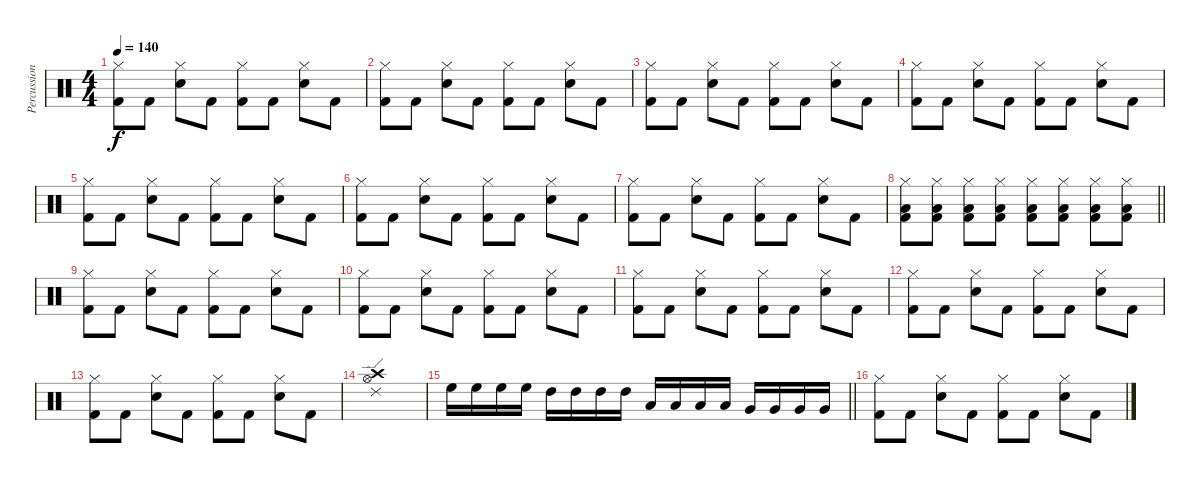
\track ("Percussion" "Percussion") {instrument percussion}
\staff {score}
\articulation defaults
\ts (4 4)
\tempo 140
\clef neutral
\ks c
("Hi-Hat (closed)" "Kick (hit) 2").8{dy f} "Kick (hit) 2".8 ("Electric Snare (hit)" "Hi-Hat (closed)").8 "Kick (hit) 2".8 ("Hi-Hat (closed)" "Kick (hit) 2").8 "Kick (hit) 2".8 ("Electric Snare (hit)" "Hi-Hat (closed)").8 "Kick (hit) 2".8 |
("Hi-Hat (closed)" "Kick (hit) 2").8 "Kick (hit) 2".8 ("Electric Snare (hit)" "Hi-Hat (closed)").8 "Kick (hit) 2".8 ("Hi-Hat (closed)" "Kick (hit) 2").8 "Kick (hit) 2".8 ("Electric Snare (hit)" "Hi-Hat (closed)").8 "Kick (hit) 2".8 |
("Hi-Hat (closed)" "Kick (hit) 2").8 "Kick (hit) 2".8 ("Electric Snare (hit)" "Hi-Hat (closed)").8 "Kick (hit) 2".8 ("Hi-Hat (closed)" "Kick (hit) 2").8 "Kick (hit) 2".8 ("Electric Snare (hit)" "Hi-Hat (closed)").8 "Kick (hit) 2".8 |
("Hi-Hat (closed)" "Kick (hit) 2").8 "Kick (hit) 2".8 ("Electric Snare (hit)" "Hi-Hat (closed)").8 "Kick (hit) 2".8 ("Hi-Hat (closed)" "Kick (hit) 2").8 "Kick (hit) 2".8 ("Electric Snare (hit)" "Hi-Hat (closed)").8 "Kick (hit) 2".8 |
("Hi-Hat (closed)" "Kick (hit) 2").8 "Kick (hit) 2".8 ("Electric Snare (hit)" "Hi-Hat (closed)").8 "Kick (hit) 2".8 ("Hi-Hat (closed)" "Kick (hit) 2").8 "Kick (hit) 2".8 ("Electric Snare (hit)" "Hi-Hat (closed)").8 "Kick (hit) 2".8 |
("Hi-Hat (closed)" "Kick (hit) 2").8 "Kick (hit) 2".8 ("Electric Snare (hit)" "Hi-Hat (closed)").8 "Kick (hit) 2".8 ("Hi-Hat (closed)" "Kick (hit) 2").8 "Kick (hit) 2".8 ("Electric Snare (hit)" "Hi-Hat (closed)").8 "Kick (hit) 2".8 |
("Hi-Hat (closed)" "Kick (hit) 2").8 "Kick (hit) 2".8 ("Electric Snare (hit)" "Hi-Hat (closed)").8 "Kick (hit) 2".8 ("Hi-Hat (closed)" "Kick (hit) 2").8 "Kick (hit) 2".8 ("Electric Snare (hit)" "Hi-Hat (closed)").8 "Kick (hit) 2".8 |
\barLineRight lightlight
("Hi-Hat (closed)" "Kick (hit) 2" "Low Floor Tom (hit)").8 ("Hi-Hat (closed)" "Kick (hit) 2" "Low Floor Tom (hit)").8 ("Hi-Hat (closed)" "Kick (hit) 2" "Low Floor Tom (hit)").8 ("Hi-Hat (closed)" "Kick (hit) 2" "Low Floor Tom (hit)").8 ("Hi-Hat (closed)" "Kick (hit) 2" "Low Floor Tom (hit)").8 ("Hi-Hat (closed)" "Kick (hit) 2" "Low Floor Tom (hit)").8 ("Hi-Hat (closed)" "Kick (hit) 2" "Low Floor Tom (hit)").8 ("Hi-Hat (closed)" "Kick (hit) 2" "Low Floor Tom (hit)").8 |
("Hi-Hat (closed)" "Kick (hit) 2").8 "Kick (hit) 2".8 ("Electric Snare (hit)" "Hi-Hat (closed)").8 "Kick (hit) 2".8 ("Hi-Hat (closed)" "Kick (hit) 2").8 "Kick (hit) 2".8 ("Electric Snare (hit)" "Hi-Hat (closed)").8 "Kick (hit) 2".8 |
("Hi-Hat (closed)" "Kick (hit) 2").8 "Kick (hit) 2".8 ("Electric Snare (hit)" "Hi-Hat (closed)").8 "Kick (hit) 2".8 ("Hi-Hat (closed)" "Kick (hit) 2").8 "Kick (hit) 2".8 ("Electric Snare (hit)" "Hi-Hat (closed)").8 "Kick (hit) 2".8 |
("Hi-Hat (closed)" "Kick (hit) 2").8 "Kick (hit) 2".8 ("Electric Snare (hit)" "Hi-Hat (closed)").8 "Kick (hit) 2".8 ("Hi-Hat (closed)" "Kick (hit) 2").8 "Kick (hit) 2".8 ("Electric Snare (hit)" "Hi-Hat (closed)").8 "Kick (hit) 2".8 |
("Hi-Hat (closed)" "Kick (hit) 2").8 "Kick (hit) 2".8 ("Electric Snare (hit)" "Hi-Hat (closed)").8 "Kick (hit) 2".8 ("Hi-Hat (closed)" "Kick (hit) 2").8 "Kick (hit) 2".8 ("Electric Snare (hit)" "Hi-Hat (closed)").8 "Kick (hit) 2".8 |
("Hi-Hat (closed)" "Kick (hit) 2").8 "Kick (hit) 2".8 ("Electric Snare (hit)" "Hi-Hat (closed)").8 "Kick (hit) 2".8 ("Hi-Hat (closed)" "Kick (hit) 2").8 "Kick (hit) 2".8 ("Electric Snare (hit)" "Hi-Hat (closed)").8 "Kick (hit) 2".8 |
("Crash high (hit)" "Hi-Hat (open)" "Ride (edge) 2").1 |
\barLineRight lightlight "High Floor Tom (hit)".16 "High Floor Tom (hit)".16 "High Floor Tom (hit)".16 "High Floor Tom (hit)".16 "High Tom (hit)".16 "High Tom (hit)".16 "High Tom (hit)".16 "High Tom (hit)".16 "Low Tom (hit)".16 "Low Tom (hit)".16 "Low Tom (hit)".16 "Low Tom (hit)".16 "Very Low Tom (hit)".16 "Very Low Tom (hit)".16 "Very Low Tom (hit)".16 "Very Low Tom (hit)".16
|
("Hi-Hat (closed)" "Kick (hit) 2").8 "Kick (hit) 2".8 ("Electric Snare (hit)" "Hi-Hat (closed)").8 "Kick (hit) 2".8 ("Hi-Hat (closed)" "Kick (hit) 2").8 "Kick (hit) 2".8 ("Electric Snare (hit)" "Hi-Hat (closed)").8 "Kick (hit) 2".8
